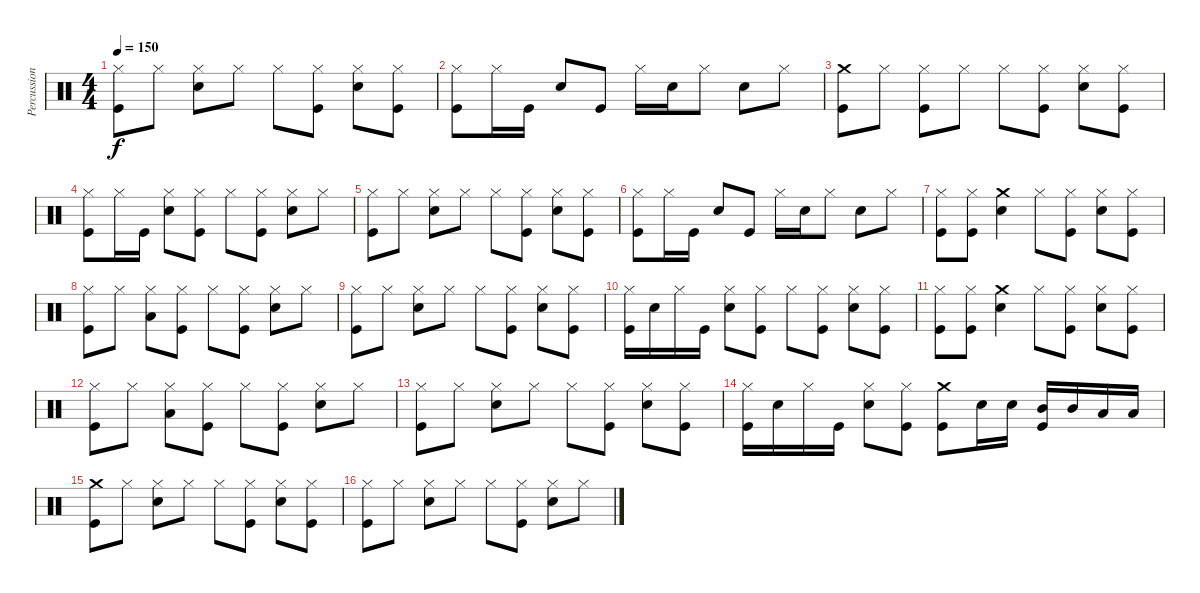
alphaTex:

\track ("Percussion" "Percussion") {instrument percussion}
\staff {score}
\articulation defaults
\ts (4 4)
\tempo 150
\clef neutral
\ks c
("Kick (hit)" "Hi-Hat (closed)").8{dy f} "Hi-Hat (closed)".8 ("Electric Snare (hit)" "Hi-Hat (closed)").8 "Hi-Hat (closed)".8 "Hi-Hat (closed)".8 ("Hi-Hat (closed)" "Kick (hit)").8 ("Hi-Hat (closed)" "Electric Snare (hit)").8 ("Kick (hit)" "Hi-Hat (closed)").8 |
("Hi-Hat (closed)" "Kick (hit)").8 "Hi-Hat (closed)".16 "Kick (hit)".16 "Electric Snare (hit)".8 "Kick (hit)".8 "Hi-Hat (closed)".16 "Electric Snare (hit)".16 "Hi-Hat (closed)".8 "Electric Snare (hit)".8 "Hi-Hat (closed)".8 |
("Crash medium (hit)" "Kick (hit)").8 "Hi-Hat (closed)".8 ("Hi-Hat (closed)" "Kick (hit)").8 "Hi-Hat (closed)".8 "Hi-Hat (closed)".8 ("Hi-Hat (closed)" "Kick (hit)").8 ("Hi-Hat (closed)" "Electric Snare (hit)").8 ("Hi-Hat (closed)" "Kick (hit)").8 |
("Kick (hit)" "Hi-Hat (closed)").8 "Hi-Hat (closed)".16 "Kick (hit)".16 ("Electric Snare (hit)" "Hi-Hat (closed)").8 ("Kick (hit)" "Hi-Hat (closed)").8 "Hi-Hat (closed)".8 ("Hi-Hat (closed)" "Kick (hit)").8 ("Electric Snare (hit)" "Hi-Hat (closed)").8 "Hi-Hat (closed)".8 |
("Kick (hit)" "Hi-Hat (closed)").8 "Hi-Hat (closed)".8 ("Electric Snare (hit)" "Hi-Hat (closed)").8 "Hi-Hat (closed)".8 "Hi-Hat (closed)".8 ("Hi-Hat (closed)" "Kick (hit)").8 ("Hi-Hat (closed)" "Electric Snare (hit)").8 ("Kick (hit)" "Hi-Hat (closed)").8 |
("Hi-Hat (closed)" "Kick (hit)").8 "Hi-Hat (closed)".16 "Kick (hit)".16 "Electric Snare (hit)".8 "Kick (hit)".8 "Hi-Hat (closed)".16 "Electric Snare (hit)".16 "Hi-Hat (closed)".8 "Electric Snare (hit)".8 "Hi-Hat (closed)".8 |
("Hi-Hat (closed)" "Kick (hit)").8 ("Hi-Hat (closed)" "Kick (hit)").8 ("Electric Snare (hit)" "Crash medium (hit)").4 "Hi-Hat (closed)".8 ("Hi-Hat (closed)" "Kick (hit)").8 ("Hi-Hat (closed)" "Electric Snare (hit)").8 ("Hi-Hat (closed)" "Kick (hit)").8 |
("Hi-Hat (closed)" "Kick (hit)").8 "Hi-Hat (closed)".8 ("Hi-Hat (closed)" "Low Tom (hit)").8 ("Hi-Hat (closed)" "Kick (hit)").8 "Hi-Hat (closed)".8 ("Hi-Hat (closed)" "Kick (hit)").8 ("Electric Snare (hit)" "Hi-Hat (closed)").8 "Hi-Hat (closed)".8 |
("Kick (hit)" "Hi-Hat (closed)").8 "Hi-Hat (closed)".8 ("Electric Snare (hit)" "Hi-Hat (closed)").8 "Hi-Hat (closed)".8 "Hi-Hat (closed)".8 ("Kick (hit)" "Hi-Hat (closed)").8 ("Hi-Hat (closed)" "Electric Snare (hit)").8 ("Kick (hit)" "Hi-Hat (closed)").8 |
("Kick (hit)" "Hi-Hat (closed)").16 "Electric Snare (hit)".16 "Hi-Hat (closed)".16 "Kick (hit)".16 ("Electric Snare (hit)" "Hi-Hat (closed)").8 ("Kick (hit)" "Hi-Hat (closed)").8 "Hi-Hat (closed)".8 ("Hi-Hat (closed)" "Kick (hit)").8 ("Hi-Hat (closed)" "Electric Snare (hit)").8 ("Hi-Hat (closed)" "Kick (hit)").8 |
("Hi-Hat (closed)" "Kick (hit)").8 ("Hi-Hat (closed)" "Kick (hit)").8 ("Electric Snare (hit)" "Crash medium (hit)").4 "Hi-Hat (closed)".8 ("Hi-Hat (closed)" "Kick (hit)").8 ("Hi-Hat (closed)" "Electric Snare (hit)").8 ("Hi-Hat (closed)" "Kick (hit)").8 |
("Hi-Hat (closed)" "Kick (hit)").8 "Hi-Hat (closed)".8 ("Hi-Hat (closed)" "Low Tom (hit)").8 ("Hi-Hat (closed)" "Kick (hit)").8 "Hi-Hat (closed)".8 ("Hi-Hat (closed)" "Kick (hit)").8 ("Electric Snare (hit)" "Hi-Hat (closed)").8 "Hi-Hat (closed)".8 |
("Kick (hit)" "Hi-Hat (closed)").8 "Hi-Hat (closed)".8 ("Electric Snare (hit)" "Hi-Hat (closed)").8 "Hi-Hat (closed)".8 "Hi-Hat (closed)".8 ("Kick (hit)" "Hi-Hat (closed)").8 ("Hi-Hat (closed)" "Electric Snare (hit)").8 ("Kick (hit)" "Hi-Hat (closed)").8 |
("Kick (hit)" "Hi-Hat (closed)").16 "Electric Snare (hit)".16 "Hi-Hat (closed)".16 "Kick (hit)".16 ("Electric Snare (hit)" "Hi-Hat (closed)").8 ("Kick (hit)" "Hi-Hat (closed)").8 ("Kick (hit)" "Crash medium (hit)").8 "Electric Snare (hit)".16 "Electric Snare (hit)".16 ("Mid Tom (hit)" "Kick (hit)").16 "Mid Tom (hit)".16 "Low Tom (hit)".16 "Low Tom (hit)".16 |
("Kick (hit)" "Crash medium (hit)").8 "Hi-Hat (closed)".8 ("Hi-Hat (closed)" "Electric Snare (hit)").8 "Hi-Hat (closed)".8 "Hi-Hat (closed)".8 ("Kick (hit)" "Hi-Hat (closed)").8 ("Electric Snare (hit)" "Hi-Hat (closed)").8 ("Kick (hit)" "Hi-Hat (closed)").8 |
("Hi-Hat (closed)" "Kick (hit)").8 "Hi-Hat (closed)".8 ("Hi-Hat (closed)" "Electric Snare (hit)").8 "Hi-Hat (closed)".8 "Hi-Hat (closed)".8 ("Hi-Hat (closed)" "Kick (hit)").8 ("Hi-Hat (closed)" "Electric Snare (hit)").8 "Hi-Hat (closed)".8
